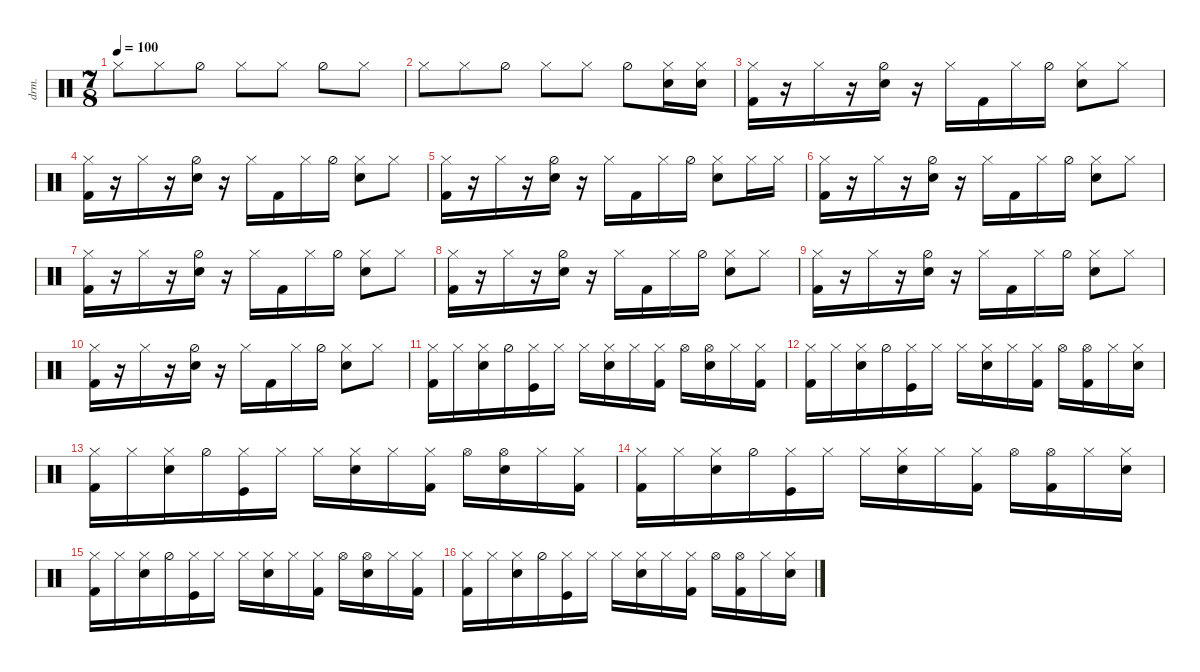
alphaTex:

\defaultSystemsLayout 4
\hideDynamics
\bracketExtendMode nobrackets
\otherSystemsTrackNameOrientation horizontal
\track ("Drumkit" "drm.") {instrument percussion}
\staff {score}
\articulation defaults
\ts (7 8)
\beaming (8 3 2 2)
\tempo 100
\clef neutral
\ks c "Hi-Hat (closed)".8{dy mf} "Hi-Hat (closed)".8 "Hi-Hat (half)".8 "Hi-Hat (closed)".8 "Hi-Hat (closed)".8 "Hi-Hat (half)".8 "Hi-Hat (closed)".8
|
"Hi-Hat (closed)".8 "Hi-Hat (closed)".8 "Hi-Hat (half)".8 "Hi-Hat (closed)".8 "Hi-Hat (closed)".8 "Hi-Hat (half)".8 ("Hi-Hat (closed)" "Snare (hit) 2").16 ("Hi-Hat (closed)" "Snare (hit) 2").16 |
("Hi-Hat (closed)" "Kick (hit) 2").16{beam Down} r.16{beam Down} "Hi-Hat (closed)".16{beam Down} r.16{beam Down} ("Hi-Hat (half)" "Snare (hit) 2").16 r.16{beam Down} "Hi-Hat (closed)".16{beam Down} "Kick (hit) 2".16{beam Down} "Hi-Hat (closed)".16{beam Down} "Hi-Hat (half)".16 ("Snare (hit) 2" "Hi-Hat (closed)").8 "Hi-Hat (closed)".8 |
("Hi-Hat (closed)" "Kick (hit) 2").16{beam Down} r.16{beam Down} "Hi-Hat (closed)".16{beam Down} r.16{beam Down} ("Hi-Hat (half)" "Snare (hit) 2").16 r.16{beam Down} "Hi-Hat (closed)".16{beam Down} "Kick (hit) 2".16{beam Down} "Hi-Hat (closed)".16{beam Down} "Hi-Hat (half)".16 ("Snare (hit) 2" "Hi-Hat (closed)").8 "Hi-Hat (closed)".8 |
("Hi-Hat (closed)" "Kick (hit) 2").16{beam Down} r.16{beam Down} "Hi-Hat (closed)".16{beam Down} r.16{beam Down} ("Hi-Hat (half)" "Snare (hit) 2").16 r.16{beam Down} "Hi-Hat (closed)".16{beam Down} "Kick (hit) 2".16{beam Down} "Hi-Hat (closed)".16{beam Down} "Hi-Hat (half)".16 ("Snare (hit) 2" "Hi-Hat (closed)").8 "Hi-Hat (closed)".16 "Hi-Hat (closed)".16 |
("Hi-Hat (closed)" "Kick (hit) 2").16{beam Down} r.16{beam Down} "Hi-Hat (closed)".16{beam Down} r.16{beam Down} ("Hi-Hat (half)" "Snare (hit) 2").16 r.16{beam Down} "Hi-Hat (closed)".16{beam Down} "Kick (hit) 2".16{beam Down} "Hi-Hat (closed)".16{beam Down} "Hi-Hat (half)".16 ("Snare (hit) 2" "Hi-Hat (closed)").8 "Hi-Hat (closed)".8 |
("Hi-Hat (closed)" "Kick (hit) 2").16{beam Down} r.16{beam Down} "Hi-Hat (closed)".16{beam Down} r.16{beam Down} ("Hi-Hat (half)" "Snare (hit) 2").16 r.16{beam Down} "Hi-Hat (closed)".16{beam Down} "Kick (hit) 2".16{beam Down} "Hi-Hat (closed)".16{beam Down} "Hi-Hat (half)".16 ("Snare (hit) 2" "Hi-Hat (closed)").8 "Hi-Hat (closed)".8 |
("Hi-Hat (closed)" "Kick (hit) 2").16{beam Down} r.16{beam Down} "Hi-Hat (closed)".16{beam Down} r.16{beam Down} ("Hi-Hat (half)" "Snare (hit) 2").16 r.16{beam Down} "Hi-Hat (closed)".16{beam Down} "Kick (hit) 2".16{beam Down} "Hi-Hat (closed)".16{beam Down} "Hi-Hat (half)".16 ("Snare (hit) 2" "Hi-Hat (closed)").8 "Hi-Hat (closed)".8 |
("Hi-Hat (closed)" "Kick (hit) 2").16{beam Down} r.16{beam Down} "Hi-Hat (closed)".16{beam Down} r.16{beam Down} ("Hi-Hat (half)" "Snare (hit) 2").16 r.16{beam Down} "Hi-Hat (closed)".16{beam Down} "Kick (hit) 2".16{beam Down} "Hi-Hat (closed)".16{beam Down} "Hi-Hat (half)".16 ("Snare (hit) 2" "Hi-Hat (closed)").8 "Hi-Hat (closed)".8 |
("Hi-Hat (closed)" "Kick (hit) 2").16{beam Down} r.16{beam Down} "Hi-Hat (closed)".16{beam Down} r.16{beam Down} ("Hi-Hat (half)" "Snare (hit) 2").16 r.16{beam Down} "Hi-Hat (closed)".16{beam Down} "Kick (hit) 2".16{beam Down} "Hi-Hat (closed)".16{beam Down} "Hi-Hat (half)".16 ("Snare (hit) 2" "Hi-Hat (closed)").8 "Hi-Hat (closed)".8 |
("Hi-Hat (closed)" "Kick (hit) 2").16{beam Down} "Hi-Hat (closed)".16{beam Down} ("Hi-Hat (closed)" "Snare (hit) 2").16{beam Down} "Hi-Hat (half)".16{beam Down} ("Hi-Hat (closed)" "Kick (hit)").16{beam Down} "Hi-Hat (closed)".16{beam Down} "Hi-Hat (closed)".16{beam Down} ("Hi-Hat (closed)" "Snare (hit) 2").16{beam Down} "Hi-Hat (closed)".16{beam Down} ("Hi-Hat (closed)" "Kick (hit) 2").16{beam Down} "Hi-Hat (open)".16{beam Down} ("Hi-Hat (open)" "Snare (hit) 2").16{beam Down} "Hi-Hat (closed)".16{beam Down} ("Hi-Hat (closed)" "Kick (hit) 2").16{beam Down} |
("Hi-Hat (closed)" "Kick (hit) 2").16{beam Down} "Hi-Hat (closed)".16{beam Down} ("Hi-Hat (closed)" "Snare (hit) 2").16{beam Down} "Hi-Hat (half)".16{beam Down} ("Hi-Hat (closed)" "Kick (hit)").16{beam Down} "Hi-Hat (closed)".16{beam Down} "Hi-Hat (closed)".16{beam Down} ("Hi-Hat (closed)" "Snare (hit) 2").16{beam Down} "Hi-Hat (closed)".16{beam Down} ("Hi-Hat (closed)" "Kick (hit) 2").16{beam Down} "Hi-Hat (open)".16{beam Down} ("Hi-Hat (open)" "Kick (hit) 2").16{beam Down} "Hi-Hat (closed)".16{beam Down} ("Hi-Hat (closed)" "Snare (hit) 2").16{beam Down} |
("Hi-Hat (closed)" "Kick (hit) 2").16{beam Down} "Hi-Hat (closed)".16{beam Down} ("Hi-Hat (closed)" "Snare (hit) 2").16{beam Down} "Hi-Hat (half)".16{beam Down} ("Hi-Hat (closed)" "Kick (hit)").16{beam Down} "Hi-Hat (closed)".16{beam Down} "Hi-Hat (closed)".16{beam Down} ("Hi-Hat (closed)" "Snare (hit) 2").16{beam Down} "Hi-Hat (closed)".16{beam Down} ("Hi-Hat (closed)" "Kick (hit) 2").16{beam Down} "Hi-Hat (open)".16{beam Down} ("Hi-Hat (open)" "Snare (hit) 2").16{beam Down} "Hi-Hat (closed)".16{beam Down} ("Hi-Hat (closed)" "Kick (hit) 2").16{beam Down} |
("Hi-Hat (closed)" "Kick (hit) 2").16{beam Down} "Hi-Hat (closed)".16{beam Down} ("Hi-Hat (closed)" "Snare (hit) 2").16{beam Down} "Hi-Hat (half)".16{beam Down} ("Hi-Hat (closed)" "Kick (hit)").16{beam Down} "Hi-Hat (closed)".16{beam Down} "Hi-Hat (closed)".16{beam Down} ("Hi-Hat (closed)" "Snare (hit) 2").16{beam Down} "Hi-Hat (closed)".16{beam Down} ("Hi-Hat (closed)" "Kick (hit) 2").16{beam Down} "Hi-Hat (open)".16{beam Down} ("Hi-Hat (open)" "Kick (hit) 2").16{beam Down} "Hi-Hat (closed)".16{beam Down} ("Hi-Hat (closed)" "Snare (hit) 2").16{beam Down} |
("Hi-Hat (closed)" "Kick (hit) 2").16{beam Down} "Hi-Hat (closed)".16{beam Down} ("Hi-Hat (closed)" "Snare (hit) 2").16{beam Down} "Hi-Hat (half)".16{beam Down} ("Hi-Hat (closed)" "Kick (hit)").16{beam Down} "Hi-Hat (closed)".16{beam Down} "Hi-Hat (closed)".16{beam Down} ("Hi-Hat (closed)" "Snare (hit) 2").16{beam Down} "Hi-Hat (closed)".16{beam Down} ("Hi-Hat (closed)" "Kick (hit) 2").16{beam Down} "Hi-Hat (open)".16{beam Down} ("Hi-Hat (open)" "Snare (hit) 2").16{beam Down} "Hi-Hat (closed)".16{beam Down} ("Hi-Hat (closed)" "Kick (hit) 2").16{beam Down} |
("Hi-Hat (closed)" "Kick (hit) 2").16{beam Down} "Hi-Hat (closed)".16{beam Down} ("Hi-Hat (closed)" "Snare (hit) 2").16{beam Down} "Hi-Hat (half)".16{beam Down} ("Hi-Hat (closed)" "Kick (hit)").16{beam Down} "Hi-Hat (closed)".16{beam Down} "Hi-Hat (closed)".16{beam Down} ("Hi-Hat (closed)" "Snare (hit) 2").16{beam Down} "Hi-Hat (closed)".16{beam Down} ("Hi-Hat (closed)" "Kick (hit) 2").16{beam Down} "Hi-Hat (open)".16{beam Down} ("Hi-Hat (open)" "Kick (hit) 2").16{beam Down} "Hi-Hat (closed)".16{beam Down} ("Hi-Hat (closed)" "Snare (hit) 2").16{beam Down}
